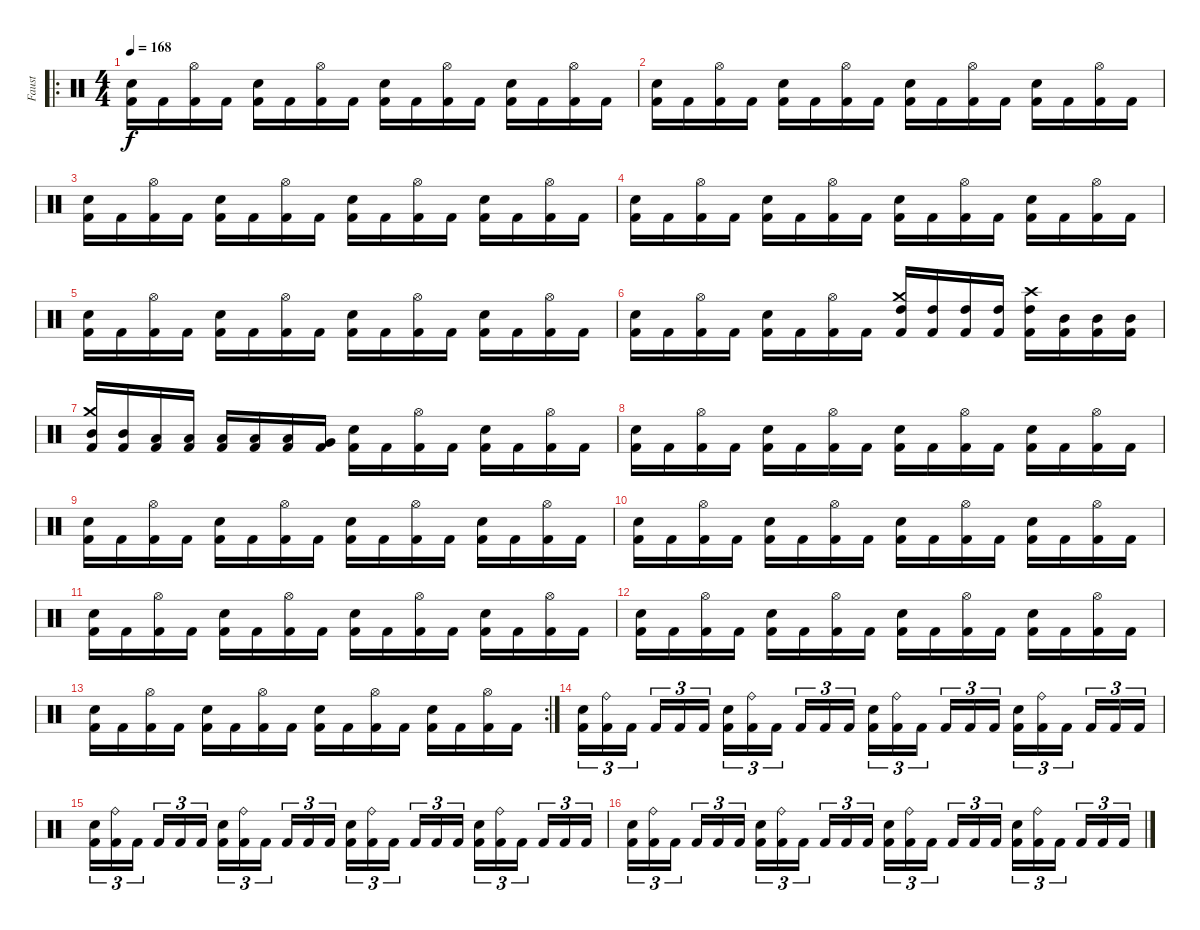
\track ("Faust" "Faust") {instrument percussion}
\staff {score}
\articulation defaults
\ro
\ts (4 4)
\tempo 168
\clef neutral
\ks c
("Electric Snare (hit)" "Kick (hit) 2").16{dy f} "Kick (hit) 2".16 ("Hi-Hat (open)" "Kick (hit) 2").16 "Kick (hit) 2".16 ("Electric Snare (hit)" "Kick (hit) 2").16 "Kick (hit) 2".16 ("Hi-Hat (open)" "Kick (hit) 2").16 "Kick (hit) 2".16 ("Electric Snare (hit)" "Kick (hit) 2").16 "Kick (hit) 2".16 ("Hi-Hat (open)" "Kick (hit) 2").16 "Kick (hit) 2".16 ("Electric Snare (hit)" "Kick (hit) 2").16 "Kick (hit) 2".16 ("Hi-Hat (open)" "Kick (hit) 2").16 "Kick (hit) 2".16 |
("Electric Snare (hit)" "Kick (hit) 2").16 "Kick (hit) 2".16 ("Hi-Hat (open)" "Kick (hit) 2").16 "Kick (hit) 2".16 ("Electric Snare (hit)" "Kick (hit) 2").16 "Kick (hit) 2".16 ("Hi-Hat (open)" "Kick (hit) 2").16 "Kick (hit) 2".16 ("Electric Snare (hit)" "Kick (hit) 2").16 "Kick (hit) 2".16 ("Hi-Hat (open)" "Kick (hit) 2").16 "Kick (hit) 2".16 ("Electric Snare (hit)" "Kick (hit) 2").16 "Kick (hit) 2".16 ("Hi-Hat (open)" "Kick (hit) 2").16 "Kick (hit) 2".16 |
("Electric Snare (hit)" "Kick (hit) 2").16 "Kick (hit) 2".16 ("Hi-Hat (open)" "Kick (hit) 2").16 "Kick (hit) 2".16 ("Electric Snare (hit)" "Kick (hit) 2").16 "Kick (hit) 2".16 ("Hi-Hat (open)" "Kick (hit) 2").16 "Kick (hit) 2".16 ("Electric Snare (hit)" "Kick (hit) 2").16 "Kick (hit) 2".16 ("Hi-Hat (open)" "Kick (hit) 2").16 "Kick (hit) 2".16 ("Electric Snare (hit)" "Kick (hit) 2").16 "Kick (hit) 2".16 ("Hi-Hat (open)" "Kick (hit) 2").16 "Kick (hit) 2".16 |
("Electric Snare (hit)" "Kick (hit) 2").16 "Kick (hit) 2".16 ("Hi-Hat (open)" "Kick (hit) 2").16 "Kick (hit) 2".16 ("Electric Snare (hit)" "Kick (hit) 2").16 "Kick (hit) 2".16 ("Hi-Hat (open)" "Kick (hit) 2").16 "Kick (hit) 2".16 ("Electric Snare (hit)" "Kick (hit) 2").16 "Kick (hit) 2".16 ("Hi-Hat (open)" "Kick (hit) 2").16 "Kick (hit) 2".16 ("Electric Snare (hit)" "Kick (hit) 2").16 "Kick (hit) 2".16 ("Hi-Hat (open)" "Kick (hit) 2").16 "Kick (hit) 2".16 |
("Electric Snare (hit)" "Kick (hit) 2").16 "Kick (hit) 2".16 ("Hi-Hat (open)" "Kick (hit) 2").16 "Kick (hit) 2".16 ("Electric Snare (hit)" "Kick (hit) 2").16 "Kick (hit) 2".16 ("Hi-Hat (open)" "Kick (hit) 2").16 "Kick (hit) 2".16 ("Electric Snare (hit)" "Kick (hit) 2").16 "Kick (hit) 2".16 ("Hi-Hat (open)" "Kick (hit) 2").16 "Kick (hit) 2".16 ("Electric Snare (hit)" "Kick (hit) 2").16 "Kick (hit) 2".16 ("Hi-Hat (open)" "Kick (hit) 2").16 "Kick (hit) 2".16 |
("Electric Snare (hit)" "Kick (hit) 2").16 "Kick (hit) 2".16 ("Hi-Hat (open)" "Kick (hit) 2").16 "Kick (hit) 2".16 ("Electric Snare (hit)" "Kick (hit) 2").16 "Kick (hit) 2".16 ("Hi-Hat (open)" "Kick (hit) 2").16 "Kick (hit) 2".16 ("Crash medium (hit)" "High Tom (hit)" "Kick (hit) 2").16 ("High Tom (hit)" "Kick (hit) 2").16 ("High Tom (hit)" "Kick (hit) 2").16 ("High Tom (hit)" "Kick (hit) 2").16 ("Crash high (hit)" "High Tom (hit)" "Kick (hit) 2").16 ("Mid Tom (hit)" "Kick (hit) 2").16 ("Mid Tom (hit)" "Kick (hit) 2").16 ("Mid Tom (hit)" "Kick (hit) 2").16 |
("Crash medium (hit)" "Mid Tom (hit)" "Kick (hit) 2").16 ("Mid Tom (hit)" "Kick (hit) 2").16 ("Low Tom (hit)" "Kick (hit) 2").16 ("Low Tom (hit)" "Kick (hit) 2").16 ("Low Tom (hit)" "Kick (hit) 2").16 ("Low Tom (hit)" "Kick (hit) 2").16 ("Low Tom (hit)" "Kick (hit) 2").16 ("Very Low Tom (hit)" "Kick (hit) 2").16 ("Electric Snare (hit)" "Kick (hit) 2").16 "Kick (hit) 2".16 ("Hi-Hat (open)" "Kick (hit) 2").16 "Kick (hit) 2".16 ("Electric Snare (hit)" "Kick (hit) 2").16 "Kick (hit) 2".16 ("Hi-Hat (open)" "Kick (hit) 2").16 "Kick (hit) 2".16 |
("Electric Snare (hit)" "Kick (hit) 2").16 "Kick (hit) 2".16 ("Hi-Hat (open)" "Kick (hit) 2").16 "Kick (hit) 2".16 ("Electric Snare (hit)" "Kick (hit) 2").16 "Kick (hit) 2".16 ("Hi-Hat (open)" "Kick (hit) 2").16 "Kick (hit) 2".16 ("Electric Snare (hit)" "Kick (hit) 2").16 "Kick (hit) 2".16 ("Hi-Hat (open)" "Kick (hit) 2").16 "Kick (hit) 2".16 ("Electric Snare (hit)" "Kick (hit) 2").16 "Kick (hit) 2".16 ("Hi-Hat (open)" "Kick (hit) 2").16 "Kick (hit) 2".16 |
("Electric Snare (hit)" "Kick (hit) 2").16 "Kick (hit) 2".16 ("Hi-Hat (open)" "Kick (hit) 2").16 "Kick (hit) 2".16 ("Electric Snare (hit)" "Kick (hit) 2").16 "Kick (hit) 2".16 ("Hi-Hat (open)" "Kick (hit) 2").16 "Kick (hit) 2".16 ("Electric Snare (hit)" "Kick (hit) 2").16 "Kick (hit) 2".16 ("Hi-Hat (open)" "Kick (hit) 2").16 "Kick (hit) 2".16 ("Electric Snare (hit)" "Kick (hit) 2").16 "Kick (hit) 2".16 ("Hi-Hat (open)" "Kick (hit) 2").16 "Kick (hit) 2".16 |
("Electric Snare (hit)" "Kick (hit) 2").16 "Kick (hit) 2".16 ("Hi-Hat (open)" "Kick (hit) 2").16 "Kick (hit) 2".16 ("Electric Snare (hit)" "Kick (hit) 2").16 "Kick (hit) 2".16 ("Hi-Hat (open)" "Kick (hit) 2").16 "Kick (hit) 2".16 ("Electric Snare (hit)" "Kick (hit) 2").16 "Kick (hit) 2".16 ("Hi-Hat (open)" "Kick (hit) 2").16 "Kick (hit) 2".16 ("Electric Snare (hit)" "Kick (hit) 2").16 "Kick (hit) 2".16 ("Hi-Hat (open)" "Kick (hit) 2").16 "Kick (hit) 2".16 |
("Electric Snare (hit)" "Kick (hit) 2").16 "Kick (hit) 2".16 ("Hi-Hat (open)" "Kick (hit) 2").16 "Kick (hit) 2".16 ("Electric Snare (hit)" "Kick (hit) 2").16 "Kick (hit) 2".16 ("Hi-Hat (open)" "Kick (hit) 2").16 "Kick (hit) 2".16 ("Electric Snare (hit)" "Kick (hit) 2").16 "Kick (hit) 2".16 ("Hi-Hat (open)" "Kick (hit) 2").16 "Kick (hit) 2".16 ("Electric Snare (hit)" "Kick (hit) 2").16 "Kick (hit) 2".16 ("Hi-Hat (open)" "Kick (hit) 2").16 "Kick (hit) 2".16 |
("Electric Snare (hit)" "Kick (hit) 2").16 "Kick (hit) 2".16 ("Hi-Hat (open)" "Kick (hit) 2").16 "Kick (hit) 2".16 ("Electric Snare (hit)" "Kick (hit) 2").16 "Kick (hit) 2".16 ("Hi-Hat (open)" "Kick (hit) 2").16 "Kick (hit) 2".16 ("Electric Snare (hit)" "Kick (hit) 2").16 "Kick (hit) 2".16 ("Hi-Hat (open)" "Kick (hit) 2").16 "Kick (hit) 2".16 ("Electric Snare (hit)" "Kick (hit) 2").16 "Kick (hit) 2".16 ("Hi-Hat (open)" "Kick (hit) 2").16 "Kick (hit) 2".16 |
\rc 2
("Electric Snare (hit)" "Kick (hit) 2").16 "Kick (hit) 2".16 ("Hi-Hat (open)" "Kick (hit) 2").16 "Kick (hit) 2".16 ("Electric Snare (hit)" "Kick (hit) 2").16 "Kick (hit) 2".16 ("Hi-Hat (open)" "Kick (hit) 2").16 "Kick (hit) 2".16 ("Electric Snare (hit)" "Kick (hit) 2").16 "Kick (hit) 2".16 ("Hi-Hat (open)" "Kick (hit) 2").16 "Kick (hit) 2".16 ("Electric Snare (hit)" "Kick (hit) 2").16 "Kick (hit) 2".16 ("Hi-Hat (open)" "Kick (hit) 2").16 "Kick (hit) 2".16 |
("Electric Snare (hit)" "Kick (hit) 2").16{tu (3 2)} ("Ride (bell)" "Kick (hit) 2").16{tu (3 2)} "Kick (hit) 2".16{tu (3 2)} "Kick (hit) 2".16{tu (3 2)} "Kick (hit) 2".16{tu (3 2)} "Kick (hit) 2".16{tu (3 2)} ("Electric Snare (hit)" "Kick (hit) 2").16{tu (3 2)} ("Ride (bell)" "Kick (hit) 2").16{tu (3 2)} "Kick (hit) 2".16{tu (3 2)} "Kick (hit) 2".16{tu (3 2)} "Kick (hit) 2".16{tu (3 2)} "Kick (hit) 2".16{tu (3 2)} ("Electric Snare (hit)" "Kick (hit) 2").16{tu (3 2)} ("Ride (bell)" "Kick (hit) 2").16{tu (3 2)} "Kick (hit) 2".16{tu (3 2)} "Kick (hit) 2".16{tu (3 2)} "Kick (hit) 2".16{tu (3 2)} "Kick (hit) 2".16{tu (3 2)} ("Electric Snare (hit)" "Kick (hit) 2").16{tu (3 2)} ("Ride (bell)" "Kick (hit) 2").16{tu (3 2)} "Kick (hit) 2".16{tu (3 2)} "Kick (hit) 2".16{tu (3 2)} "Kick (hit) 2".16{tu (3 2)} "Kick (hit) 2".16{tu (3 2)} |
("Electric Snare (hit)" "Kick (hit) 2").16{tu (3 2)} ("Ride (bell)" "Kick (hit) 2").16{tu (3 2)} "Kick (hit) 2".16{tu (3 2)} "Kick (hit) 2".16{tu (3 2)} "Kick (hit) 2".16{tu (3 2)} "Kick (hit) 2".16{tu (3 2)} ("Electric Snare (hit)" "Kick (hit) 2").16{tu (3 2)} ("Ride (bell)" "Kick (hit) 2").16{tu (3 2)} "Kick (hit) 2".16{tu (3 2)} "Kick (hit) 2".16{tu (3 2)} "Kick (hit) 2".16{tu (3 2)} "Kick (hit) 2".16{tu (3 2)} ("Electric Snare (hit)" "Kick (hit) 2").16{tu (3 2)} ("Ride (bell)" "Kick (hit) 2").16{tu (3 2)} "Kick (hit) 2".16{tu (3 2)} "Kick (hit) 2".16{tu (3 2)} "Kick (hit) 2".16{tu (3 2)} "Kick (hit) 2".16{tu (3 2)} ("Electric Snare (hit)" "Kick (hit) 2").16{tu (3 2)} ("Ride (bell)" "Kick (hit) 2").16{tu (3 2)} "Kick (hit) 2".16{tu (3 2)} "Kick (hit) 2".16{tu (3 2)} "Kick (hit) 2".16{tu (3 2)} "Kick (hit) 2".16{tu (3 2)} |
("Electric Snare (hit)" "Kick (hit) 2").16{tu (3 2)} ("Ride (bell)" "Kick (hit) 2").16{tu (3 2)} "Kick (hit) 2".16{tu (3 2)} "Kick (hit) 2".16{tu (3 2)} "Kick (hit) 2".16{tu (3 2)} "Kick (hit) 2".16{tu (3 2)} ("Electric Snare (hit)" "Kick (hit) 2").16{tu (3 2)} ("Ride (bell)" "Kick (hit) 2").16{tu (3 2)} "Kick (hit) 2".16{tu (3 2)} "Kick (hit) 2".16{tu (3 2)} "Kick (hit) 2".16{tu (3 2)} "Kick (hit) 2".16{tu (3 2)} ("Electric Snare (hit)" "Kick (hit) 2").16{tu (3 2)} ("Ride (bell)" "Kick (hit) 2").16{tu (3 2)} "Kick (hit) 2".16{tu (3 2)} "Kick (hit) 2".16{tu (3 2)} "Kick (hit) 2".16{tu (3 2)} "Kick (hit) 2".16{tu (3 2)} ("Electric Snare (hit)" "Kick (hit) 2").16{tu (3 2)} ("Ride (bell)" "Kick (hit) 2").16{tu (3 2)} "Kick (hit) 2".16{tu (3 2)} "Kick (hit) 2".16{tu (3 2)} "Kick (hit) 2".16{tu (3 2)} "Kick (hit) 2".16{tu (3 2)}
